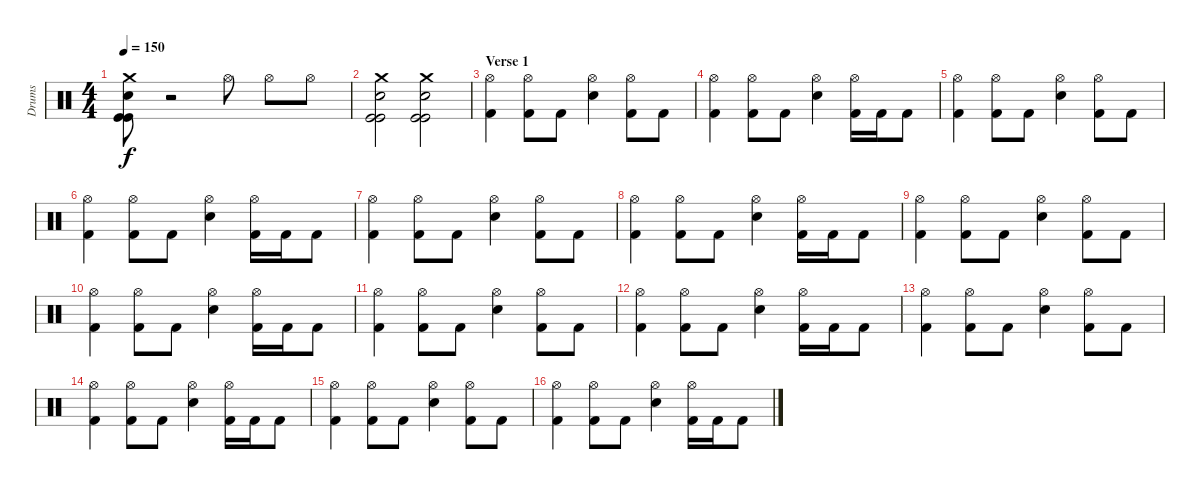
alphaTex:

\track ("Drums" "Drums") {instrument percussion}
\staff {score}
\articulation defaults
\ts (4 4)
\tempo 150
\clef neutral
\ks c
("Crash medium (hit)" "Kick (hit)" "Kick (hit)" "Snare (hit) 2").8{dy f} r.2 "Hi-Hat (open)".8 "Hi-Hat (open)".8 "Hi-Hat (open)".8 |
("Crash medium (hit)" "Snare (hit) 2" "Kick (hit)" "Kick (hit)").2 ("Crash medium (hit)" "Snare (hit) 2" "Kick (hit)" "Kick (hit)").2 |
\section ("" "Verse 1")
("Hi-Hat (open)" "Kick (hit) 2").4 ("Hi-Hat (open)" "Kick (hit) 2").8 "Kick (hit) 2".8 ("Hi-Hat (open)" "Snare (hit) 2").4 ("Hi-Hat (open)" "Kick (hit) 2").8 "Kick (hit) 2".8 |
("Hi-Hat (open)" "Kick (hit) 2").4 ("Hi-Hat (open)" "Kick (hit) 2").8 "Kick (hit) 2".8 ("Hi-Hat (open)" "Snare (hit) 2").4 ("Hi-Hat (open)" "Kick (hit) 2").16 "Kick (hit) 2".16 "Kick (hit) 2".8 |
("Hi-Hat (open)" "Kick (hit) 2").4 ("Hi-Hat (open)" "Kick (hit) 2").8 "Kick (hit) 2".8 ("Hi-Hat (open)" "Snare (hit) 2").4 ("Hi-Hat (open)" "Kick (hit) 2").8 "Kick (hit) 2".8 |
("Hi-Hat (open)" "Kick (hit) 2").4 ("Hi-Hat (open)" "Kick (hit) 2").8 "Kick (hit) 2".8 ("Hi-Hat (open)" "Snare (hit) 2").4 ("Hi-Hat (open)" "Kick (hit) 2").16 "Kick (hit) 2".16 "Kick (hit) 2".8 |
("Hi-Hat (open)" "Kick (hit) 2").4 ("Hi-Hat (open)" "Kick (hit) 2").8 "Kick (hit) 2".8 ("Hi-Hat (open)" "Snare (hit) 2").4 ("Hi-Hat (open)" "Kick (hit) 2").8 "Kick (hit) 2".8 |
("Hi-Hat (open)" "Kick (hit) 2").4 ("Hi-Hat (open)" "Kick (hit) 2").8 "Kick (hit) 2".8 ("Hi-Hat (open)" "Snare (hit) 2").4 ("Hi-Hat (open)" "Kick (hit) 2").16 "Kick (hit) 2".16 "Kick (hit) 2".8 |
("Hi-Hat (open)" "Kick (hit) 2").4 ("Hi-Hat (open)" "Kick (hit) 2").8 "Kick (hit) 2".8 ("Hi-Hat (open)" "Snare (hit) 2").4 ("Hi-Hat (open)" "Kick (hit) 2").8 "Kick (hit) 2".8 |
("Hi-Hat (open)" "Kick (hit) 2").4 ("Hi-Hat (open)" "Kick (hit) 2").8 "Kick (hit) 2".8 ("Hi-Hat (open)" "Snare (hit) 2").4 ("Hi-Hat (open)" "Kick (hit) 2").16 "Kick (hit) 2".16 "Kick (hit) 2".8 |
("Hi-Hat (open)" "Kick (hit) 2").4 ("Hi-Hat (open)" "Kick (hit) 2").8 "Kick (hit) 2".8 ("Hi-Hat (open)" "Snare (hit) 2").4 ("Hi-Hat (open)" "Kick (hit) 2").8 "Kick (hit) 2".8 |
("Hi-Hat (open)" "Kick (hit) 2").4 ("Hi-Hat (open)" "Kick (hit) 2").8 "Kick (hit) 2".8 ("Hi-Hat (open)" "Snare (hit) 2").4 ("Hi-Hat (open)" "Kick (hit) 2").16 "Kick (hit) 2".16 "Kick (hit) 2".8 |
("Hi-Hat (open)" "Kick (hit) 2").4 ("Hi-Hat (open)" "Kick (hit) 2").8 "Kick (hit) 2".8 ("Hi-Hat (open)" "Snare (hit) 2").4 ("Hi-Hat (open)" "Kick (hit) 2").8 "Kick (hit) 2".8 |
("Hi-Hat (open)" "Kick (hit) 2").4 ("Hi-Hat (open)" "Kick (hit) 2").8 "Kick (hit) 2".8 ("Hi-Hat (open)" "Snare (hit) 2").4 ("Hi-Hat (open)" "Kick (hit) 2").16 "Kick (hit) 2".16 "Kick (hit) 2".8 |
("Hi-Hat (open)" "Kick (hit) 2").4 ("Hi-Hat (open)" "Kick (hit) 2").8 "Kick (hit) 2".8 ("Hi-Hat (open)" "Snare (hit) 2").4 ("Hi-Hat (open)" "Kick (hit) 2").8 "Kick (hit) 2".8 |
("Hi-Hat (open)" "Kick (hit) 2").4 ("Hi-Hat (open)" "Kick (hit) 2").8 "Kick (hit) 2".8 ("Hi-Hat (open)" "Snare (hit) 2").4 ("Hi-Hat (open)" "Kick (hit) 2").16 "Kick (hit) 2".16 "Kick (hit) 2".8
